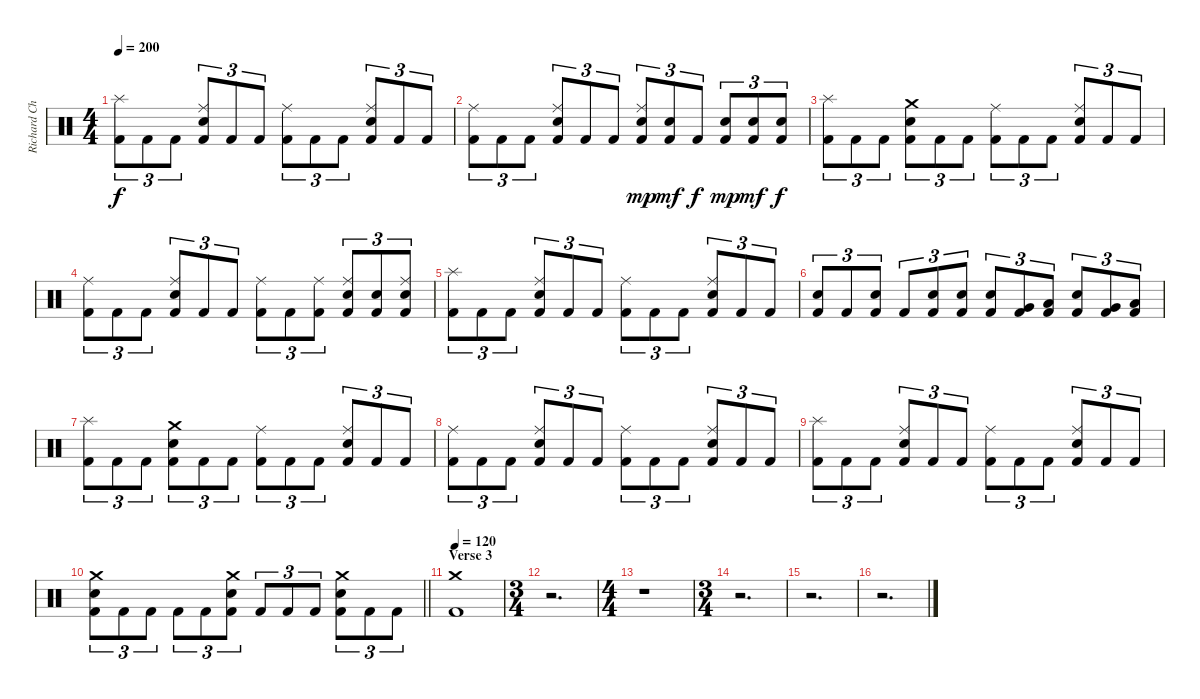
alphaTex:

\track ("Richard Christy" "Richard Ch") {instrument percussion}
\staff {score}
\articulation defaults
\ts (4 4)
\tempo 200
\clef neutral
\ks c
("Splash (hit)" "Kick (hit) 2").8{tu (3 2) dy f} "Kick (hit) 2".8{tu (3 2)} "Kick (hit) 2".8{tu (3 2)} ("Ride (middle)" "Electric Snare (hit)" "Kick (hit) 2").8{tu (3 2)} "Kick (hit) 2".8{tu (3 2)} "Kick (hit) 2".8{tu (3 2)} ("Ride (middle)" "Kick (hit) 2").8{tu (3 2)} "Kick (hit) 2".8{tu (3 2)} "Kick (hit) 2".8{tu (3 2)} ("Ride (middle)" "Electric Snare (hit)" "Kick (hit) 2").8{tu (3 2)} "Kick (hit) 2".8{tu (3 2)} "Kick (hit) 2".8{tu (3 2)} |
("Ride (middle)" "Kick (hit) 2").8{tu (3 2)} "Kick (hit) 2".8{tu (3 2)} "Kick (hit) 2".8{tu (3 2)} ("Ride (middle)" "Electric Snare (hit)" "Kick (hit) 2").8{tu (3 2)} "Kick (hit) 2".8{tu (3 2)} "Kick (hit) 2".8{tu (3 2)} ("Ride (middle)" "Electric Snare (hit)" "Kick (hit) 2").8{tu (3 2) dy mp} ("Electric Snare (hit)" "Kick (hit) 2").8{tu (3 2) dy mf} "Kick (hit) 2".8{tu (3 2) dy f} ("Electric Snare (hit)" "Kick (hit) 2").8{tu (3 2) dy mp} ("Electric Snare (hit)" "Kick (hit) 2").8{tu (3 2) dy mf} ("Electric Snare (hit)" "Kick (hit) 2").8{tu (3 2) dy f} |
("Splash (hit)" "Kick (hit) 2").8{tu (3 2)} "Kick (hit) 2".8{tu (3 2)} "Kick (hit) 2".8{tu (3 2)} ("Crash medium (hit)" "Electric Snare (hit)" "Kick (hit) 2").8{tu (3 2)} "Kick (hit) 2".8{tu (3 2)} "Kick (hit) 2".8{tu (3 2)} ("Ride (middle)" "Kick (hit) 2").8{tu (3 2)} "Kick (hit) 2".8{tu (3 2)} "Kick (hit) 2".8{tu (3 2)} ("Ride (middle)" "Electric Snare (hit)" "Kick (hit) 2").8{tu (3 2)} "Kick (hit) 2".8{tu (3 2)} "Kick (hit) 2".8{tu (3 2)} |
("Ride (middle)" "Kick (hit) 2").8{tu (3 2)} "Kick (hit) 2".8{tu (3 2)} "Kick (hit) 2".8{tu (3 2)} ("Ride (middle)" "Electric Snare (hit)" "Kick (hit) 2").8{tu (3 2)} "Kick (hit) 2".8{tu (3 2)} "Kick (hit) 2".8{tu (3 2)} ("Ride (middle)" "Kick (hit) 2").8{tu (3 2)} "Kick (hit) 2".8{tu (3 2)} ("Ride (middle)" "Kick (hit) 2").8{tu (3 2)} ("Ride (middle)" "Electric Snare (hit)" "Kick (hit) 2").8{tu (3 2)} ("Electric Snare (hit)" "Kick (hit) 2").8{tu (3 2)} ("Ride (middle)" "Electric Snare (hit)" "Kick (hit) 2").8{tu (3 2)} |
("Splash (hit)" "Kick (hit) 2").8{tu (3 2)} "Kick (hit) 2".8{tu (3 2)} "Kick (hit) 2".8{tu (3 2)} ("Ride (middle)" "Electric Snare (hit)" "Kick (hit) 2").8{tu (3 2)} "Kick (hit) 2".8{tu (3 2)} "Kick (hit) 2".8{tu (3 2)} ("Ride (middle)" "Kick (hit) 2").8{tu (3 2)} "Kick (hit) 2".8{tu (3 2)} "Kick (hit) 2".8{tu (3 2)} ("Ride (middle)" "Electric Snare (hit)" "Kick (hit) 2").8{tu (3 2)} "Kick (hit) 2".8{tu (3 2)} "Kick (hit) 2".8{tu (3 2)} |
("Electric Snare (hit)" "Kick (hit) 2").8{tu (3 2)} "Kick (hit) 2".8{tu (3 2)} ("Electric Snare (hit)" "Kick (hit) 2").8{tu (3 2)} "Kick (hit) 2".8{tu (3 2)} ("Electric Snare (hit)" "Kick (hit) 2").8{tu (3 2)} ("Electric Snare (hit)" "Kick (hit) 2").8{tu (3 2)} ("Electric Snare (hit)" "Kick (hit) 2").8{tu (3 2)} ("Very Low Tom (hit)" "Kick (hit) 2").8{tu (3 2)} ("Low Floor Tom (hit)" "Kick (hit) 2").8{tu (3 2)} ("Electric Snare (hit)" "Kick (hit) 2").8{tu (3 2)} ("Very Low Tom (hit)" "Kick (hit) 2").8{tu (3 2)} ("Low Floor Tom (hit)" "Kick (hit) 2").8{tu (3 2)} |
("Splash (hit)" "Kick (hit) 2").8{tu (3 2)} "Kick (hit) 2".8{tu (3 2)} "Kick (hit) 2".8{tu (3 2)} ("Crash medium (hit)" "Electric Snare (hit)" "Kick (hit) 2").8{tu (3 2)} "Kick (hit) 2".8{tu (3 2)} "Kick (hit) 2".8{tu (3 2)} ("Ride (middle)" "Kick (hit) 2").8{tu (3 2)} "Kick (hit) 2".8{tu (3 2)} "Kick (hit) 2".8{tu (3 2)} ("Ride (middle)" "Electric Snare (hit)" "Kick (hit) 2").8{tu (3 2)} "Kick (hit) 2".8{tu (3 2)} "Kick (hit) 2".8{tu (3 2)} |
("Ride (middle)" "Kick (hit) 2").8{tu (3 2)} "Kick (hit) 2".8{tu (3 2)} "Kick (hit) 2".8{tu (3 2)} ("Ride (middle)" "Electric Snare (hit)" "Kick (hit) 2").8{tu (3 2)} "Kick (hit) 2".8{tu (3 2)} "Kick (hit) 2".8{tu (3 2)} ("Ride (middle)" "Kick (hit) 2").8{tu (3 2)} "Kick (hit) 2".8{tu (3 2)} "Kick (hit) 2".8{tu (3 2)} ("Ride (middle)" "Electric Snare (hit)" "Kick (hit) 2").8{tu (3 2)} "Kick (hit) 2".8{tu (3 2)} "Kick (hit) 2".8{tu (3 2)} |
("Splash (hit)" "Kick (hit) 2").8{tu (3 2)} "Kick (hit) 2".8{tu (3 2)} "Kick (hit) 2".8{tu (3 2)} ("Ride (middle)" "Electric Snare (hit)" "Kick (hit) 2").8{tu (3 2)} "Kick (hit) 2".8{tu (3 2)} "Kick (hit) 2".8{tu (3 2)} ("Ride (middle)" "Kick (hit) 2").8{tu (3 2)} "Kick (hit) 2".8{tu (3 2)} "Kick (hit) 2".8{tu (3 2)} ("Ride (middle)" "Electric Snare (hit)" "Kick (hit) 2").8{tu (3 2)} "Kick (hit) 2".8{tu (3 2)} "Kick (hit) 2".8{tu (3 2)} |
\barLineRight lightlight
("Crash medium (hit)" "Electric Snare (hit)" "Kick (hit) 2").8{tu (3 2)} "Kick (hit) 2".8{tu (3 2)} "Kick (hit) 2".8{tu (3 2)} "Kick (hit) 2".8{tu (3 2)} "Kick (hit) 2".8{tu (3 2)} ("Crash medium (hit)" "Electric Snare (hit)" "Kick (hit) 2").8{tu (3 2)} "Kick (hit) 2".8{tu (3 2)} "Kick (hit) 2".8{tu (3 2)} "Kick (hit) 2".8{tu (3 2)} ("Crash medium (hit)" "Electric Snare (hit)" "Kick (hit) 2").8{tu (3 2)} "Kick (hit) 2".8{tu (3 2)} "Kick (hit) 2".8{tu (3 2)} |
\section ("" "Verse 3")
\tempo 120
("Crash medium (hit)" "Kick (hit) 2").1 |
\ts (3 4)
r.2{d} |
\ts (4 4)
r.1 |
\ts (3 4)
r.2{d} |
r.2{d} |
r.2{d}
